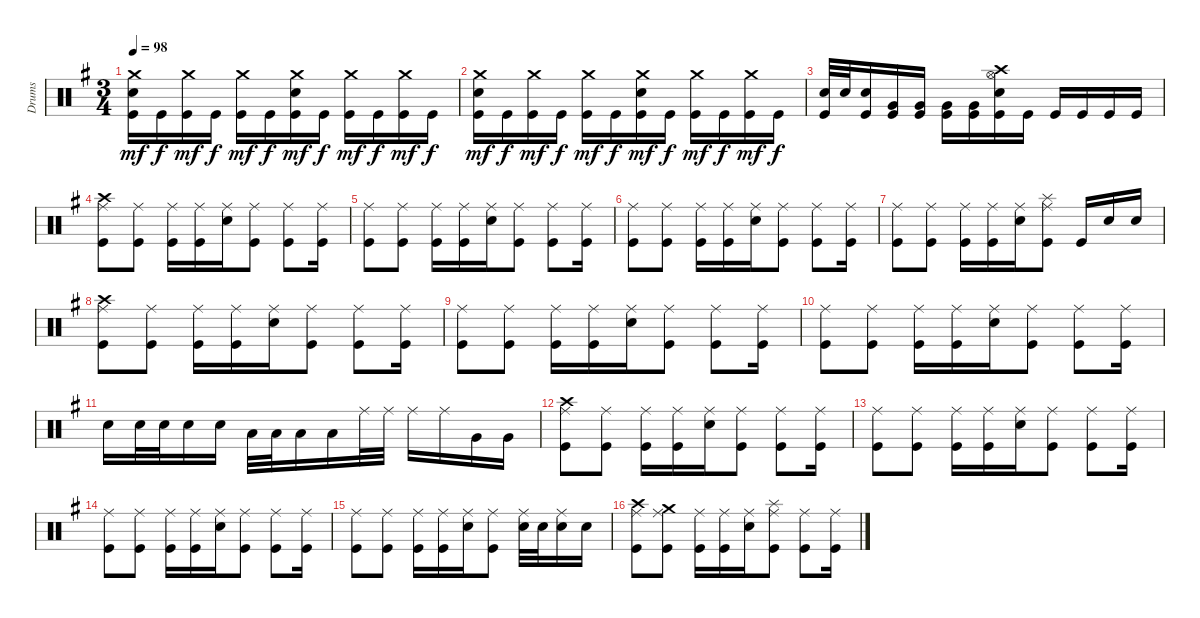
\track ("Drums" "Drums") {instrument percussion}
\staff {score}
\articulation defaults
\ts (3 4)
\tempo 98
\clef neutral
\ks eminor
("Crash medium (hit)" "Electric Snare (hit)" "Kick (hit)").16{dy mf} "Kick (hit)".16{dy f} ("Crash medium (hit)" "Kick (hit)").16{dy mf} "Kick (hit)".16{dy f} ("Crash medium (hit)" "Kick (hit)").16{dy mf} "Kick (hit)".16{dy f} ("Crash medium (hit)" "Electric Snare (hit)" "Kick (hit)").16{dy mf} "Kick (hit)".16{dy f} ("Crash medium (hit)" "Kick (hit)").16{dy mf} "Kick (hit)".16{dy f} ("Crash medium (hit)" "Kick (hit)").16{dy mf} "Kick (hit)".16{dy f} |
("Crash medium (hit)" "Electric Snare (hit)" "Kick (hit)").16{dy mf} "Kick (hit)".16{dy f} ("Crash medium (hit)" "Kick (hit)").16{dy mf} "Kick (hit)".16{dy f} ("Crash medium (hit)" "Kick (hit)").16{dy mf} "Kick (hit)".16{dy f} ("Crash medium (hit)" "Electric Snare (hit)" "Kick (hit)").16{dy mf} "Kick (hit)".16{dy f} ("Crash medium (hit)" "Kick (hit)").16{dy mf} "Kick (hit)".16{dy f} ("Crash medium (hit)" "Kick (hit)").16{dy mf} "Kick (hit)".16{dy f} |
("Electric Snare (hit)" "Kick (hit)").32 "Electric Snare (hit)".32 ("Electric Snare (hit)" "Kick (hit)").16 ("Very Low Tom (hit)" "Kick (hit)").16 ("Very Low Tom (hit)" "Kick (hit)").16 ("Very Low Tom (hit)" "Kick (hit)").16 ("Very Low Tom (hit)" "Kick (hit)").16 ("Crash high (hit)" "Hi-Hat (open)" "Electric Snare (hit)" "Kick (hit)").16 "Kick (hit)".16 "Kick (hit)".16 "Kick (hit)".16 "Kick (hit)".16 "Kick (hit)".16 |
("Crash high (hit)" "Ride (middle)" "Kick (hit)").8 ("Ride (middle)" "Kick (hit)").8 ("Ride (middle)" "Kick (hit)").16 ("Ride (middle)" "Kick (hit)").16 ("Ride (middle)" "Electric Snare (hit)").16 ("Ride (middle)" "Kick (hit)").8 ("Ride (middle)" "Kick (hit)").8 ("Ride (middle)" "Kick (hit)").16 |
("Ride (middle)" "Kick (hit)").8 ("Ride (middle)" "Kick (hit)").8 ("Ride (middle)" "Kick (hit)").16 ("Ride (middle)" "Kick (hit)").16 ("Ride (middle)" "Electric Snare (hit)").16 ("Ride (middle)" "Kick (hit)").8 ("Ride (middle)" "Kick (hit)").8 ("Ride (middle)" "Kick (hit)").16 |
("Ride (middle)" "Kick (hit)").8 ("Ride (middle)" "Kick (hit)").8 ("Ride (middle)" "Kick (hit)").16 ("Ride (middle)" "Kick (hit)").16 ("Ride (middle)" "Electric Snare (hit)").16 ("Ride (middle)" "Kick (hit)").8 ("Ride (middle)" "Kick (hit)").8 ("Ride (middle)" "Kick (hit)").16 |
("Ride (middle)" "Kick (hit)").8 ("Ride (middle)" "Kick (hit)").8 ("Ride (middle)" "Kick (hit)").16 ("Ride (middle)" "Kick (hit)").16 ("Ride (middle)" "Electric Snare (hit)").16 ("Splash (hit)" "Ride (middle)" "Kick (hit)").8 "Kick (hit)".16 "Electric Snare (hit)".16 "Electric Snare (hit)".16 |
("Crash high (hit)" "Ride (middle)" "Kick (hit)").8 ("Ride (middle)" "Kick (hit)").8 ("Ride (middle)" "Kick (hit)").16 ("Ride (middle)" "Kick (hit)").16 ("Ride (middle)" "Electric Snare (hit)").16 ("Ride (middle)" "Kick (hit)").8 ("Ride (middle)" "Kick (hit)").8 ("Ride (middle)" "Kick (hit)").16 |
("Ride (middle)" "Kick (hit)").8 ("Ride (middle)" "Kick (hit)").8 ("Ride (middle)" "Kick (hit)").16 ("Ride (middle)" "Kick (hit)").16 ("Ride (middle)" "Electric Snare (hit)").16 ("Ride (middle)" "Kick (hit)").8 ("Ride (middle)" "Kick (hit)").8 ("Ride (middle)" "Kick (hit)").16 |
("Ride (middle)" "Kick (hit)").8 ("Ride (middle)" "Kick (hit)").8 ("Ride (middle)" "Kick (hit)").16 ("Ride (middle)" "Kick (hit)").16 ("Ride (middle)" "Electric Snare (hit)").16 ("Ride (middle)" "Kick (hit)").8 ("Ride (middle)" "Kick (hit)").8 ("Ride (middle)" "Kick (hit)").16 |
"Electric Snare (hit)".16 "Electric Snare (hit)".32 "Electric Snare (hit)".32 "Electric Snare (hit)".16 "Electric Snare (hit)".16 "Low Tom (hit)".32 "Low Tom (hit)".32 "Low Tom (hit)".16 "Low Tom (hit)".16 "Ride (middle)".32 "Ride (middle)".32 "Ride (middle)".16 "Ride (middle)".16 "Very Low Tom (hit)".16 "Very Low Tom (hit)".16 |
("Crash high (hit)" "Ride (middle)" "Kick (hit)").8 ("Ride (middle)" "Kick (hit)").8 ("Ride (middle)" "Kick (hit)").16 ("Ride (middle)" "Kick (hit)").16 ("Ride (middle)" "Electric Snare (hit)").16 ("Ride (middle)" "Kick (hit)").8 ("Ride (middle)" "Kick (hit)").8 ("Ride (middle)" "Kick (hit)").16 |
("Ride (middle)" "Kick (hit)").8 ("Ride (middle)" "Kick (hit)").8 ("Ride (middle)" "Kick (hit)").16 ("Ride (middle)" "Kick (hit)").16 ("Ride (middle)" "Electric Snare (hit)").16 ("Ride (middle)" "Kick (hit)").8 ("Ride (middle)" "Kick (hit)").8 ("Ride (middle)" "Kick (hit)").16 |
("Ride (middle)" "Kick (hit)").8 ("Ride (middle)" "Kick (hit)").8 ("Ride (middle)" "Kick (hit)").16 ("Ride (middle)" "Kick (hit)").16 ("Ride (middle)" "Electric Snare (hit)").16 ("Ride (middle)" "Kick (hit)").8 ("Ride (middle)" "Kick (hit)").8 ("Ride (middle)" "Kick (hit)").16 |
("Ride (middle)" "Kick (hit)").8 ("Ride (middle)" "Kick (hit)").8 ("Ride (middle)" "Kick (hit)").16 ("Ride (middle)" "Kick (hit)").16 ("Ride (middle)" "Electric Snare (hit)").16 ("Ride (middle)" "Kick (hit)").8 ("Ride (middle)" "Electric Snare (hit)").32 "Electric Snare (hit)".32 ("Ride (middle)" "Electric Snare (hit)").16 "Electric Snare (hit)".16 |
("Crash high (hit)" "Ride (middle)" "Kick (hit)").8 ("Crash medium (hit)" "Ride (middle)" "Kick (hit)").8 ("Ride (middle)" "Kick (hit)").16 ("Ride (middle)" "Kick (hit)").16 ("Ride (middle)" "Electric Snare (hit)").16 ("Splash (hit)" "Ride (middle)" "Kick (hit)").8 ("Ride (middle)" "Kick (hit)").8 ("Ride (middle)" "Kick (hit)").16
